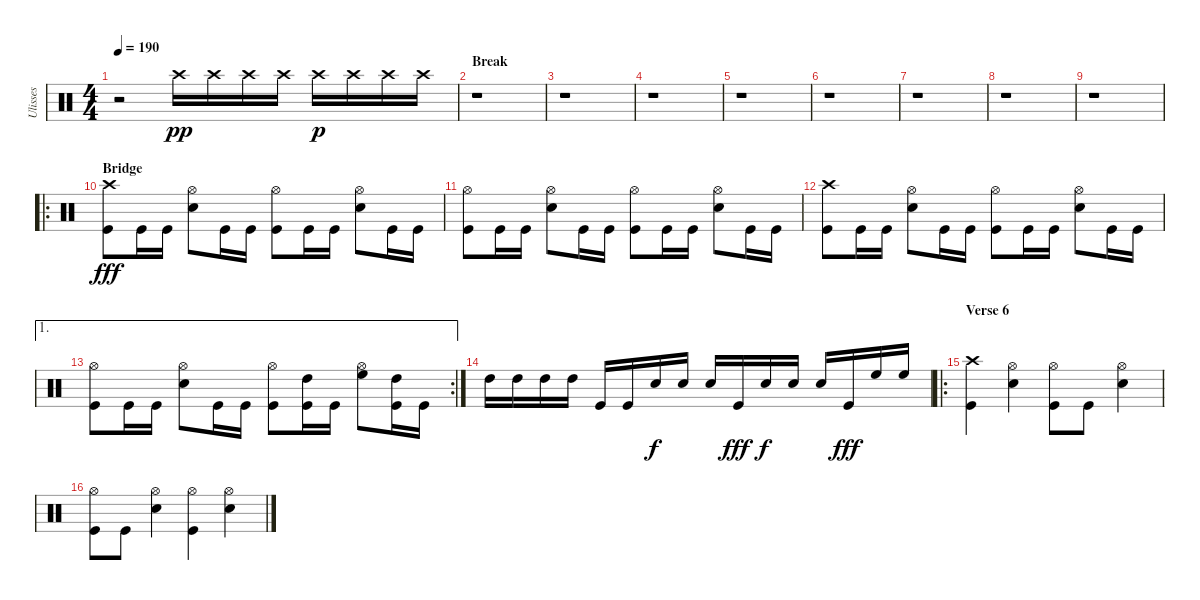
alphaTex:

\track ("Ulisses" "Ulisses") {instrument percussion}
\staff {score}
\articulation defaults
\ts (4 4)
\tempo 190
\clef neutral
\ks c
r.2{dy ppp} "Crash high (hit)".16{dy pp} "Crash high (hit)".16 "Crash high (hit)".16 "Crash high (hit)".16 "Crash high (hit)".16{dy p} "Crash high (hit)".16 "Crash high (hit)".16 "Crash high (hit)".16 |
\section ("" "Break")
r.1 |
r.1 |
r.1 |
r.1 |
r.1 |
r.1 |
r.1 |
r.1 |
\ro
\section ("" "Bridge")
("Crash high (hit)" "Kick (hit)").8{dy fff} "Kick (hit)".16 "Kick (hit)".16 ("Hi-Hat (open)" "Electric Snare (hit)").8 "Kick (hit)".16 "Kick (hit)".16 ("Hi-Hat (open)" "Kick (hit)").8 "Kick (hit)".16 "Kick (hit)".16 ("Hi-Hat (open)" "Electric Snare (hit)").8 "Kick (hit)".16 "Kick (hit)".16 |
("Hi-Hat (open)" "Kick (hit)").8 "Kick (hit)".16 "Kick (hit)".16 ("Hi-Hat (open)" "Electric Snare (hit)").8 "Kick (hit)".16 "Kick (hit)".16 ("Hi-Hat (open)" "Kick (hit)").8 "Kick (hit)".16 "Kick (hit)".16 ("Hi-Hat (open)" "Electric Snare (hit)").8 "Kick (hit)".16 "Kick (hit)".16 |
("Crash high (hit)" "Kick (hit)").8 "Kick (hit)".16 "Kick (hit)".16 ("Hi-Hat (open)" "Electric Snare (hit)").8 "Kick (hit)".16 "Kick (hit)".16 ("Hi-Hat (open)" "Kick (hit)").8 "Kick (hit)".16 "Kick (hit)".16 ("Hi-Hat (open)" "Electric Snare (hit)").8 "Kick (hit)".16 "Kick (hit)".16 |
\ae 1
\rc 2
("Hi-Hat (open)" "Kick (hit)").8 "Kick (hit)".16 "Kick (hit)".16 ("Hi-Hat (open)" "Electric Snare (hit)").8 "Kick (hit)".16 "Kick (hit)".16 ("Hi-Hat (open)" "Kick (hit)").8 ("High Tom (hit)" "Kick (hit)").16 "Kick (hit)".16 ("Hi-Hat (open)" "High Floor Tom (hit)").8 ("High Tom (hit)" "Kick (hit)").16 "Kick (hit)".16 |
"High Tom (hit)".16 "High Tom (hit)".16 "High Tom (hit)".16 "High Tom (hit)".16 "Kick (hit)".16 "Kick (hit)".16 "Electric Snare (hit)".16{dy f} "Electric Snare (hit)".16 "Electric Snare (hit)".16 "Kick (hit)".16{dy fff} "Electric Snare (hit)".16{dy f} "Electric Snare (hit)".16 "Electric Snare (hit)".16 "Kick (hit)".16{dy fff} "High Floor Tom (hit)".16 "High Floor Tom (hit)".16 |
\ro
\section ("" "Verse 6")
("Crash high (hit)" "Kick (hit)").4 ("Hi-Hat (open)" "Electric Snare (hit)").4 ("Hi-Hat (open)" "Kick (hit)").8 "Kick (hit)".8 ("Hi-Hat (open)" "Electric Snare (hit)").4 |
("Hi-Hat (open)" "Kick (hit)").8 "Kick (hit)".8 ("Hi-Hat (open)" "Electric Snare (hit)").4 ("Hi-Hat (open)" "Kick (hit)").4 ("Hi-Hat (open)" "Electric Snare (hit)").4
